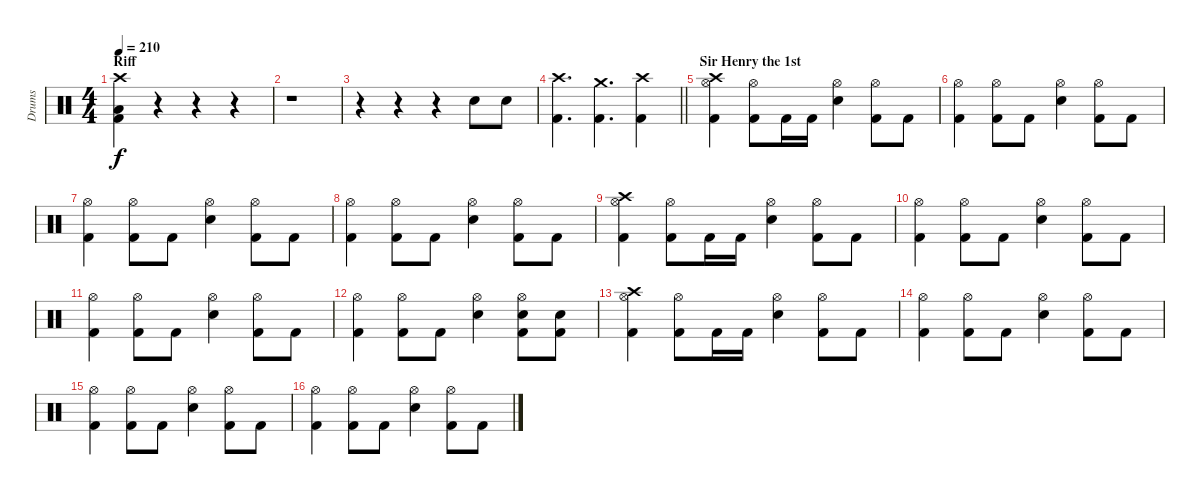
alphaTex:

\track ("Drums" "Drums") {instrument percussion}
\staff {score}
\articulation defaults
\ts (4 4)
\section ("" "Riff")
\tempo 210
\clef neutral
\ks c
("Crash high (hit)" "Low Floor Tom (hit)" "Kick (hit) 2").4{dy f} r.4 r.4 r.4 |
r.1 |
r.4 r.4 r.4 "Snare (hit) 2".8 "Snare (hit) 2".8 |
\barLineRight lightlight
("Crash high (hit)" "Kick (hit) 2").4{d} ("Crash medium (hit)" "Kick (hit) 2").4{d} ("Crash high (hit)" "Kick (hit) 2").4 |
\section ("" "Sir Henry the 1st")
("Crash high (hit)" "Hi-Hat (open)" "Kick (hit) 2").4 ("Hi-Hat (open)" "Kick (hit) 2").8 "Kick (hit) 2".16 "Kick (hit) 2".16 ("Hi-Hat (open)" "Snare (hit) 2").4 ("Hi-Hat (open)" "Kick (hit) 2").8 "Kick (hit) 2".8 |
("Hi-Hat (open)" "Kick (hit) 2").4 ("Hi-Hat (open)" "Kick (hit) 2").8 "Kick (hit) 2".8 ("Hi-Hat (open)" "Snare (hit) 2").4 ("Hi-Hat (open)" "Kick (hit) 2").8 "Kick (hit) 2".8 |
("Hi-Hat (open)" "Kick (hit) 2").4 ("Hi-Hat (open)" "Kick (hit) 2").8 "Kick (hit) 2".8 ("Hi-Hat (open)" "Snare (hit) 2").4 ("Hi-Hat (open)" "Kick (hit) 2").8 "Kick (hit) 2".8 |
("Hi-Hat (open)" "Kick (hit) 2").4 ("Hi-Hat (open)" "Kick (hit) 2").8 "Kick (hit) 2".8 ("Hi-Hat (open)" "Snare (hit) 2").4 ("Hi-Hat (open)" "Kick (hit) 2").8 "Kick (hit) 2".8 |
("Crash high (hit)" "Hi-Hat (open)" "Kick (hit) 2").4 ("Hi-Hat (open)" "Kick (hit) 2").8 "Kick (hit) 2".16 "Kick (hit) 2".16 ("Hi-Hat (open)" "Snare (hit) 2").4 ("Hi-Hat (open)" "Kick (hit) 2").8 "Kick (hit) 2".8 |
("Hi-Hat (open)" "Kick (hit) 2").4 ("Hi-Hat (open)" "Kick (hit) 2").8 "Kick (hit) 2".8 ("Hi-Hat (open)" "Snare (hit) 2").4 ("Hi-Hat (open)" "Kick (hit) 2").8 "Kick (hit) 2".8 |
("Hi-Hat (open)" "Kick (hit) 2").4 ("Hi-Hat (open)" "Kick (hit) 2").8 "Kick (hit) 2".8 ("Hi-Hat (open)" "Snare (hit) 2").4 ("Hi-Hat (open)" "Kick (hit) 2").8 "Kick (hit) 2".8 |
("Hi-Hat (open)" "Kick (hit) 2").4 ("Hi-Hat (open)" "Kick (hit) 2").8 "Kick (hit) 2".8 ("Hi-Hat (open)" "Snare (hit) 2").4 ("Hi-Hat (open)" "Snare (hit) 2" "Kick (hit) 2").8 ("Snare (hit) 2" "Kick (hit) 2").8 |
("Crash high (hit)" "Hi-Hat (open)" "Kick (hit) 2").4 ("Hi-Hat (open)" "Kick (hit) 2").8 "Kick (hit) 2".16 "Kick (hit) 2".16 ("Hi-Hat (open)" "Snare (hit) 2").4 ("Hi-Hat (open)" "Kick (hit) 2").8 "Kick (hit) 2".8 |
("Hi-Hat (open)" "Kick (hit) 2").4 ("Hi-Hat (open)" "Kick (hit) 2").8 "Kick (hit) 2".8 ("Hi-Hat (open)" "Snare (hit) 2").4 ("Hi-Hat (open)" "Kick (hit) 2").8 "Kick (hit) 2".8 |
("Hi-Hat (open)" "Kick (hit) 2").4 ("Hi-Hat (open)" "Kick (hit) 2").8 "Kick (hit) 2".8 ("Hi-Hat (open)" "Snare (hit) 2").4 ("Hi-Hat (open)" "Kick (hit) 2").8 "Kick (hit) 2".8 |
("Hi-Hat (open)" "Kick (hit) 2").4 ("Hi-Hat (open)" "Kick (hit) 2").8 "Kick (hit) 2".8 ("Hi-Hat (open)" "Snare (hit) 2").4 ("Hi-Hat (open)" "Kick (hit) 2").8 "Kick (hit) 2".8
